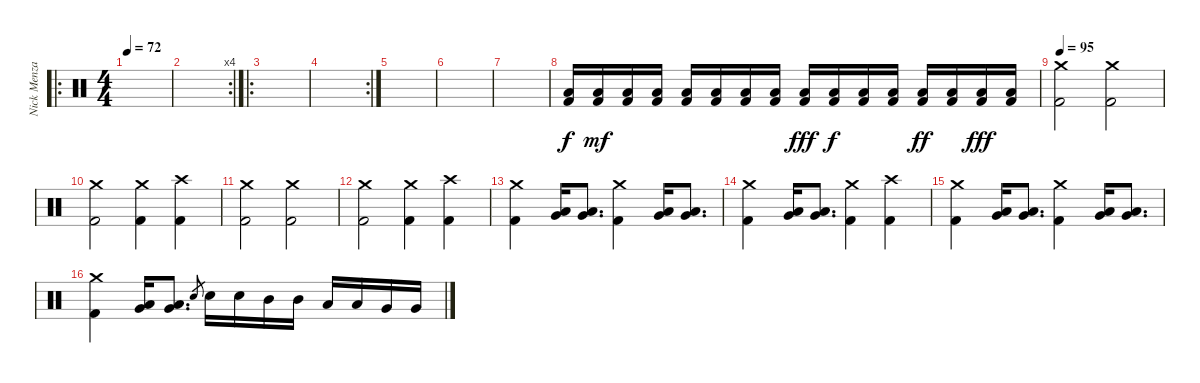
\track ("Nick Menza" "Nick Menza") {instrument percussion}
\staff {score}
\articulation defaults
\ro
\ts (4 4)
\tempo 72
\clef neutral
\ks c
|
\rc 4
|
\ro
|
\rc 2
|
|
|
|
("Kick (hit) 2" "Low Floor Tom (hit)").16 ("Kick (hit) 2" "Low Floor Tom (hit)").16{dy mf} ("Kick (hit) 2" "Low Floor Tom (hit)").16 ("Kick (hit) 2" "Low Floor Tom (hit)").16 ("Kick (hit) 2" "Low Floor Tom (hit)").16 ("Kick (hit) 2" "Low Floor Tom (hit)").16 ("Kick (hit) 2" "Low Floor Tom (hit)").16 ("Kick (hit) 2" "Low Floor Tom (hit)").16 ("Kick (hit) 2" "Low Floor Tom (hit)").16{dy fff} ("Kick (hit) 2" "Low Floor Tom (hit)").16{dy f} ("Kick (hit) 2" "Low Floor Tom (hit)").16 ("Kick (hit) 2" "Low Floor Tom (hit)").16 ("Kick (hit) 2" "Low Floor Tom (hit)").16{dy ff} ("Kick (hit) 2" "Low Floor Tom (hit)").16 ("Kick (hit) 2" "Low Floor Tom (hit)").16{dy fff} ("Kick (hit) 2" "Low Floor Tom (hit)").16 |
\tempo 95
("Kick (hit) 2" "Crash medium (hit)").2 ("Kick (hit) 2" "Crash medium (hit)").2 |
("Kick (hit) 2" "Crash medium (hit)").2 ("Kick (hit) 2" "Crash medium (hit)").4 ("Kick (hit) 2" "Crash high (hit)").4 |
("Kick (hit) 2" "Crash medium (hit)").2 ("Kick (hit) 2" "Crash medium (hit)").2 |
("Kick (hit) 2" "Crash medium (hit)").2 ("Kick (hit) 2" "Crash medium (hit)").4 ("Kick (hit) 2" "Crash high (hit)").4 |
("Kick (hit) 2" "Crash medium (hit)").4 ("Very Low Tom (hit)" "Low Tom (hit)").16 ("Very Low Tom (hit)" "Low Tom (hit)").8{d} ("Kick (hit) 2" "Crash medium (hit)").4 ("Very Low Tom (hit)" "Low Floor Tom (hit)").16 ("Very Low Tom (hit)" "Low Floor Tom (hit)").8{d} |
("Kick (hit) 2" "Crash medium (hit)").4 ("Very Low Tom (hit)" "Low Tom (hit)").16 ("Very Low Tom (hit)" "Low Tom (hit)").8{d} ("Kick (hit) 2" "Crash medium (hit)").4 ("Kick (hit) 2" "Crash high (hit)").4 |
("Kick (hit) 2" "Crash medium (hit)").4 ("Very Low Tom (hit)" "Low Tom (hit)").16 ("Very Low Tom (hit)" "Low Tom (hit)").8{d} ("Kick (hit) 2" "Crash medium (hit)").4 ("Very Low Tom (hit)" "Low Floor Tom (hit)").16 ("Very Low Tom (hit)" "Low Floor Tom (hit)").8{d} |
("Kick (hit) 2" "Crash medium (hit)").4 ("Very Low Tom (hit)" "Low Tom (hit)").16 ("Very Low Tom (hit)" "Low Tom (hit)").8{d} "Electric Snare (hit)".8{gr} "Electric Snare (hit)".16 "Electric Snare (hit)".16 "Mid Tom (hit)".16 "Mid Tom (hit)".16 "Low Tom (hit)".16 "Low Tom (hit)".16 "Very Low Tom (hit)".16 "Very Low Tom (hit)".16
